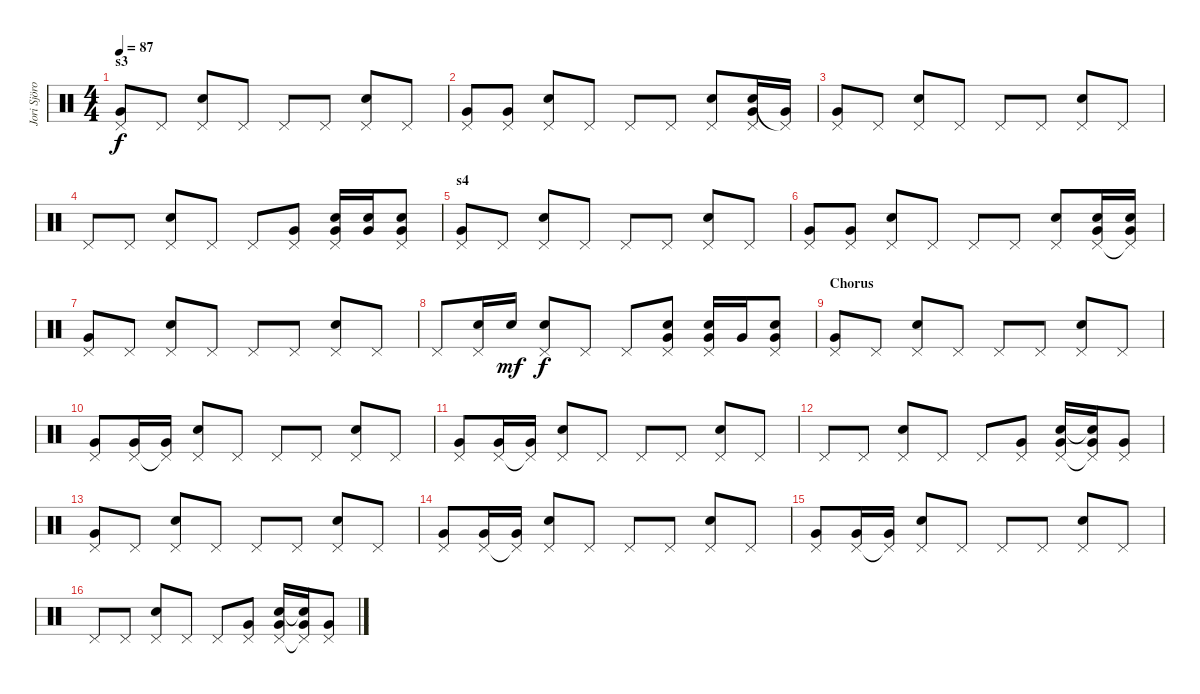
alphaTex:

\track ("Jori Sjöroos" "Jori Sjöro") {instrument percussion}
\staff {score}
\articulation defaults
\ts (4 4)
\section ("" "s3")
\tempo 87
\clef neutral
\ks c
("Pedal Hi-Hat (hit)" "Very Low Tom (hit)").8{dy f} "Pedal Hi-Hat (hit)".8 ("Snare (hit) 2" "Pedal Hi-Hat (hit)").8 "Pedal Hi-Hat (hit)".8 "Pedal Hi-Hat (hit)".8 "Pedal Hi-Hat (hit)".8 ("Snare (hit) 2" "Pedal Hi-Hat (hit)").8 "Pedal Hi-Hat (hit)".8 |
("Pedal Hi-Hat (hit)" "Very Low Tom (hit)").8 ("Pedal Hi-Hat (hit)" "Very Low Tom (hit)").8 ("Snare (hit) 2" "Pedal Hi-Hat (hit)").8 "Pedal Hi-Hat (hit)".8 "Pedal Hi-Hat (hit)".8 "Pedal Hi-Hat (hit)".8 ("Snare (hit) 2" "Pedal Hi-Hat (hit)").8 ("Snare (hit) 2" "Pedal Hi-Hat (hit)" "Very Low Tom (hit)").16 ("Pedal Hi-Hat (hit)"{t} "Very Low Tom (hit)").16 |
("Pedal Hi-Hat (hit)" "Very Low Tom (hit)").8 "Pedal Hi-Hat (hit)".8 ("Snare (hit) 2" "Pedal Hi-Hat (hit)").8 "Pedal Hi-Hat (hit)".8 "Pedal Hi-Hat (hit)".8 "Pedal Hi-Hat (hit)".8 ("Snare (hit) 2" "Pedal Hi-Hat (hit)").8 "Pedal Hi-Hat (hit)".8 |
"Pedal Hi-Hat (hit)".8 "Pedal Hi-Hat (hit)".8 ("Snare (hit) 2" "Pedal Hi-Hat (hit)").8 "Pedal Hi-Hat (hit)".8 "Pedal Hi-Hat (hit)".8 ("Pedal Hi-Hat (hit)" "Very Low Tom (hit)").8 ("Snare (hit) 2" "Pedal Hi-Hat (hit)" "Very Low Tom (hit)").16 ("Snare (hit) 2" "Very Low Tom (hit)").16 ("Snare (hit) 2" "Pedal Hi-Hat (hit)" "Very Low Tom (hit)").8 |
\section ("" "s4")
("Pedal Hi-Hat (hit)" "Very Low Tom (hit)").8 "Pedal Hi-Hat (hit)".8 ("Snare (hit) 2" "Pedal Hi-Hat (hit)").8 "Pedal Hi-Hat (hit)".8 "Pedal Hi-Hat (hit)".8 "Pedal Hi-Hat (hit)".8 ("Snare (hit) 2" "Pedal Hi-Hat (hit)").8 "Pedal Hi-Hat (hit)".8 |
("Pedal Hi-Hat (hit)" "Very Low Tom (hit)").8 ("Pedal Hi-Hat (hit)" "Very Low Tom (hit)").8 ("Snare (hit) 2" "Pedal Hi-Hat (hit)").8 "Pedal Hi-Hat (hit)".8 "Pedal Hi-Hat (hit)".8 "Pedal Hi-Hat (hit)".8 ("Snare (hit) 2" "Pedal Hi-Hat (hit)").8 ("Snare (hit) 2" "Pedal Hi-Hat (hit)" "Very Low Tom (hit)").16 ("Snare (hit) 2" "Pedal Hi-Hat (hit)"{t} "Very Low Tom (hit)").16 |
("Pedal Hi-Hat (hit)" "Very Low Tom (hit)").8 "Pedal Hi-Hat (hit)".8 ("Snare (hit) 2" "Pedal Hi-Hat (hit)").8 "Pedal Hi-Hat (hit)".8 "Pedal Hi-Hat (hit)".8 "Pedal Hi-Hat (hit)".8 ("Snare (hit) 2" "Pedal Hi-Hat (hit)").8 "Pedal Hi-Hat (hit)".8 |
"Pedal Hi-Hat (hit)".8 ("Snare (hit) 2" "Pedal Hi-Hat (hit)").16 "Snare (hit) 2".16{dy mf} ("Snare (hit) 2" "Pedal Hi-Hat (hit)").8{dy f} "Pedal Hi-Hat (hit)".8 "Pedal Hi-Hat (hit)".8 ("Snare (hit) 2" "Pedal Hi-Hat (hit)" "Very Low Tom (hit)").8 ("Snare (hit) 2" "Pedal Hi-Hat (hit)" "Very Low Tom (hit)").16 "Very Low Tom (hit)".16 ("Snare (hit) 2" "Pedal Hi-Hat (hit)" "Very Low Tom (hit)").8 |
\section ("" "Chorus")
("Pedal Hi-Hat (hit)" "Very Low Tom (hit)").8 "Pedal Hi-Hat (hit)".8 ("Snare (hit) 2" "Pedal Hi-Hat (hit)").8 "Pedal Hi-Hat (hit)".8 "Pedal Hi-Hat (hit)".8 "Pedal Hi-Hat (hit)".8 ("Snare (hit) 2" "Pedal Hi-Hat (hit)").8 "Pedal Hi-Hat (hit)".8 |
("Pedal Hi-Hat (hit)" "Very Low Tom (hit)").8 ("Pedal Hi-Hat (hit)" "Very Low Tom (hit)").16 ("Pedal Hi-Hat (hit)"{t} "Very Low Tom (hit)").16 ("Snare (hit) 2" "Pedal Hi-Hat (hit)").8 "Pedal Hi-Hat (hit)".8 "Pedal Hi-Hat (hit)".8 "Pedal Hi-Hat (hit)".8 ("Snare (hit) 2" "Pedal Hi-Hat (hit)").8 "Pedal Hi-Hat (hit)".8 |
("Pedal Hi-Hat (hit)" "Very Low Tom (hit)").8 ("Pedal Hi-Hat (hit)" "Very Low Tom (hit)").16 ("Pedal Hi-Hat (hit)"{t} "Very Low Tom (hit)").16 ("Snare (hit) 2" "Pedal Hi-Hat (hit)").8 "Pedal Hi-Hat (hit)".8 "Pedal Hi-Hat (hit)".8 "Pedal Hi-Hat (hit)".8 ("Snare (hit) 2" "Pedal Hi-Hat (hit)").8 "Pedal Hi-Hat (hit)".8 |
"Pedal Hi-Hat (hit)".8 "Pedal Hi-Hat (hit)".8 ("Snare (hit) 2" "Pedal Hi-Hat (hit)").8 "Pedal Hi-Hat (hit)".8 "Pedal Hi-Hat (hit)".8 ("Pedal Hi-Hat (hit)" "Very Low Tom (hit)").8 ("Snare (hit) 2" "Pedal Hi-Hat (hit)" "Very Low Tom (hit)").16 ("Snare (hit) 2"{t} "Pedal Hi-Hat (hit)"{t} "Very Low Tom (hit)").16 ("Pedal Hi-Hat (hit)" "Very Low Tom (hit)").8 |
("Pedal Hi-Hat (hit)" "Very Low Tom (hit)").8 "Pedal Hi-Hat (hit)".8 ("Snare (hit) 2" "Pedal Hi-Hat (hit)").8 "Pedal Hi-Hat (hit)".8 "Pedal Hi-Hat (hit)".8 "Pedal Hi-Hat (hit)".8 ("Snare (hit) 2" "Pedal Hi-Hat (hit)").8 "Pedal Hi-Hat (hit)".8 |
("Pedal Hi-Hat (hit)" "Very Low Tom (hit)").8 ("Pedal Hi-Hat (hit)" "Very Low Tom (hit)").16 ("Pedal Hi-Hat (hit)"{t} "Very Low Tom (hit)").16 ("Snare (hit) 2" "Pedal Hi-Hat (hit)").8 "Pedal Hi-Hat (hit)".8 "Pedal Hi-Hat (hit)".8 "Pedal Hi-Hat (hit)".8 ("Snare (hit) 2" "Pedal Hi-Hat (hit)").8 "Pedal Hi-Hat (hit)".8 |
("Pedal Hi-Hat (hit)" "Very Low Tom (hit)").8 ("Pedal Hi-Hat (hit)" "Very Low Tom (hit)").16 ("Pedal Hi-Hat (hit)"{t} "Very Low Tom (hit)").16 ("Snare (hit) 2" "Pedal Hi-Hat (hit)").8 "Pedal Hi-Hat (hit)".8 "Pedal Hi-Hat (hit)".8 "Pedal Hi-Hat (hit)".8 ("Snare (hit) 2" "Pedal Hi-Hat (hit)").8 "Pedal Hi-Hat (hit)".8 |
"Pedal Hi-Hat (hit)".8 "Pedal Hi-Hat (hit)".8 ("Snare (hit) 2" "Pedal Hi-Hat (hit)").8 "Pedal Hi-Hat (hit)".8 "Pedal Hi-Hat (hit)".8 ("Pedal Hi-Hat (hit)" "Very Low Tom (hit)").8 ("Snare (hit) 2" "Pedal Hi-Hat (hit)" "Very Low Tom (hit)").16 ("Snare (hit) 2"{t} "Pedal Hi-Hat (hit)"{t} "Very Low Tom (hit)").16 ("Pedal Hi-Hat (hit)" "Very Low Tom (hit)").8
